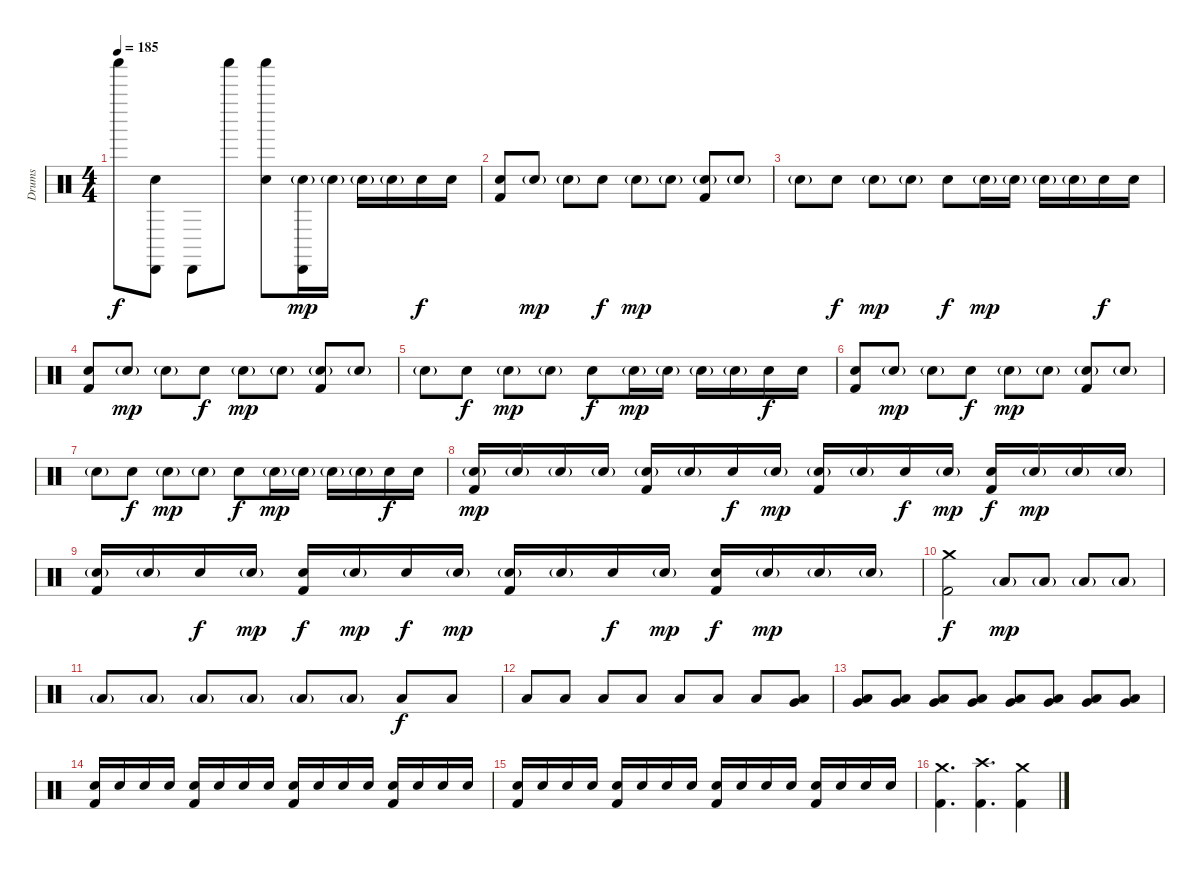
\track ("Drums" "Drums") {instrument percussion}
\staff {score}
\articulation defaults
\ts (4 4)
\tempo 185
\clef neutral
\ks c "Shaker (hit)".8{dy f}
("Cabasa (hit)" "Electric Snare (hit)").8 "Cabasa (hit)".8 "Shaker (hit)".8 ("Shaker (hit)" "Electric Snare (hit)").8 ("Cabasa (hit)" "Electric Snare (hit)"{g}).16{dy mp} "Electric Snare (hit)"{g}.16 "Electric Snare (hit)"{g}.16 "Electric Snare (hit)"{g}.16 "Electric Snare (hit)".16{dy f} "Electric Snare (hit)".16 |
("Electric Snare (hit)" "Kick (hit) 2").8{volume 12} "Electric Snare (hit)"{g}.8{dy mp} "Electric Snare (hit)"{g}.8 "Electric Snare (hit)".8{dy f} "Electric Snare (hit)"{g}.8{dy mp} "Electric Snare (hit)"{g}.8 ("Electric Snare (hit)"{g} "Kick (hit) 2").8 "Electric Snare (hit)"{g}.8 |
"Electric Snare (hit)"{g}.8 "Electric Snare (hit)".8{dy f} "Electric Snare (hit)"{g}.8{dy mp} "Electric Snare (hit)"{g}.8 "Electric Snare (hit)".8{dy f} "Electric Snare (hit)"{g}.16{dy mp} "Electric Snare (hit)"{g}.16 "Electric Snare (hit)"{g}.16 "Electric Snare (hit)"{g}.16 "Electric Snare (hit)".16{dy f} "Electric Snare (hit)".16 |
("Electric Snare (hit)" "Kick (hit) 2").8 "Electric Snare (hit)"{g}.8{dy mp} "Electric Snare (hit)"{g}.8 "Electric Snare (hit)".8{dy f} "Electric Snare (hit)"{g}.8{dy mp} "Electric Snare (hit)"{g}.8 ("Electric Snare (hit)"{g} "Kick (hit) 2").8 "Electric Snare (hit)"{g}.8 |
"Electric Snare (hit)"{g}.8 "Electric Snare (hit)".8{dy f} "Electric Snare (hit)"{g}.8{dy mp} "Electric Snare (hit)"{g}.8 "Electric Snare (hit)".8{dy f} "Electric Snare (hit)"{g}.16{dy mp} "Electric Snare (hit)"{g}.16 "Electric Snare (hit)"{g}.16 "Electric Snare (hit)"{g}.16 "Electric Snare (hit)".16{dy f} "Electric Snare (hit)".16 |
("Electric Snare (hit)" "Kick (hit) 2").8 "Electric Snare (hit)"{g}.8{dy mp} "Electric Snare (hit)"{g}.8 "Electric Snare (hit)".8{dy f} "Electric Snare (hit)"{g}.8{dy mp} "Electric Snare (hit)"{g}.8 ("Electric Snare (hit)"{g} "Kick (hit) 2").8 "Electric Snare (hit)"{g}.8 |
"Electric Snare (hit)"{g}.8 "Electric Snare (hit)".8{dy f} "Electric Snare (hit)"{g}.8{dy mp} "Electric Snare (hit)"{g}.8 "Electric Snare (hit)".8{dy f} "Electric Snare (hit)"{g}.16{dy mp} "Electric Snare (hit)"{g}.16 "Electric Snare (hit)"{g}.16 "Electric Snare (hit)"{g}.16 "Electric Snare (hit)".16{dy f} "Electric Snare (hit)".16 |
("Electric Snare (hit)"{g} "Kick (hit) 2").16{dy mp} "Electric Snare (hit)"{g}.16 "Electric Snare (hit)"{g}.16 "Electric Snare (hit)"{g}.16 ("Electric Snare (hit)"{g} "Kick (hit) 2").16 "Electric Snare (hit)"{g}.16 "Electric Snare (hit)".16{dy f} "Electric Snare (hit)"{g}.16{dy mp} ("Electric Snare (hit)"{g} "Kick (hit) 2").16 "Electric Snare (hit)"{g}.16 "Electric Snare (hit)".16{dy f} "Electric Snare (hit)"{g}.16{dy mp} ("Electric Snare (hit)" "Kick (hit) 2").16{dy f} "Electric Snare (hit)"{g}.16{dy mp} "Electric Snare (hit)"{g}.16 "Electric Snare (hit)"{g}.16 |
("Electric Snare (hit)"{g} "Kick (hit) 2").16 "Electric Snare (hit)"{g}.16 "Electric Snare (hit)".16{dy f} "Electric Snare (hit)"{g}.16{dy mp} ("Electric Snare (hit)" "Kick (hit) 2").16{dy f} "Electric Snare (hit)"{g}.16{dy mp} "Electric Snare (hit)".16{dy f} "Electric Snare (hit)"{g}.16{dy mp} ("Electric Snare (hit)"{g} "Kick (hit) 2").16 "Electric Snare (hit)"{g}.16 "Electric Snare (hit)".16{dy f} "Electric Snare (hit)"{g}.16{dy mp} ("Electric Snare (hit)" "Kick (hit) 2").16{dy f} "Electric Snare (hit)"{g}.16{dy mp} "Electric Snare (hit)"{g}.16 "Electric Snare (hit)"{g}.16 |
("Crash medium (hit)" "Kick (hit) 2").2{dy f} "Low Floor Tom (hit)"{g}.8{dy mp} "Low Floor Tom (hit)"{g}.8 "Low Floor Tom (hit)"{g}.8 "Low Floor Tom (hit)"{g}.8 |
"Low Floor Tom (hit)"{g}.8 "Low Floor Tom (hit)"{g}.8 "Low Floor Tom (hit)"{g}.8 "Low Floor Tom (hit)"{g}.8 "Low Floor Tom (hit)"{g}.8 "Low Floor Tom (hit)"{g}.8 "Low Floor Tom (hit)".8{dy f} "Low Floor Tom (hit)".8 |
"Low Floor Tom (hit)".8 "Low Floor Tom (hit)".8 "Low Floor Tom (hit)".8 "Low Floor Tom (hit)".8 "Low Floor Tom (hit)".8 "Low Floor Tom (hit)".8 "Low Floor Tom (hit)".8 ("Very Low Tom (hit)" "Low Floor Tom (hit)").8 |
("Very Low Tom (hit)" "Low Floor Tom (hit)").8 ("Very Low Tom (hit)" "Low Floor Tom (hit)").8 ("Very Low Tom (hit)" "Low Floor Tom (hit)").8 ("Low Tom (hit)" "Very Low Tom (hit)").8 ("Low Tom (hit)" "Very Low Tom (hit)").8 ("Low Tom (hit)" "Very Low Tom (hit)").8 ("Low Tom (hit)" "Very Low Tom (hit)").8 ("Low Tom (hit)" "Very Low Tom (hit)").8 |
("Electric Snare (hit)" "Kick (hit) 2").16{volume 9} "Electric Snare (hit)".16{volume 12} "Electric Snare (hit)".16 "Electric Snare (hit)".16 ("Electric Snare (hit)" "Kick (hit) 2").16 "Electric Snare (hit)".16 "Electric Snare (hit)".16 "Electric Snare (hit)".16 ("Electric Snare (hit)" "Kick (hit) 2").16 "Electric Snare (hit)".16 "Electric Snare (hit)".16 "Electric Snare (hit)".16 ("Electric Snare (hit)" "Kick (hit) 2").16 "Electric Snare (hit)".16 "Electric Snare (hit)".16 "Electric Snare (hit)".16 |
("Electric Snare (hit)" "Kick (hit) 2").16 "Electric Snare (hit)".16 "Electric Snare (hit)".16 "Electric Snare (hit)".16 ("Electric Snare (hit)" "Kick (hit) 2").16 "Electric Snare (hit)".16 "Electric Snare (hit)".16 "Electric Snare (hit)".16 ("Electric Snare (hit)" "Kick (hit) 2").16 "Electric Snare (hit)".16 "Electric Snare (hit)".16 "Electric Snare (hit)".16 ("Electric Snare (hit)" "Kick (hit) 2").16 "Electric Snare (hit)".16 "Electric Snare (hit)".16 "Electric Snare (hit)".16 |
("Crash medium (hit)" "Kick (hit) 2").4{d} ("Crash high (hit)" "Kick (hit) 2").4{d} ("Crash medium (hit)" "Kick (hit) 2").4
